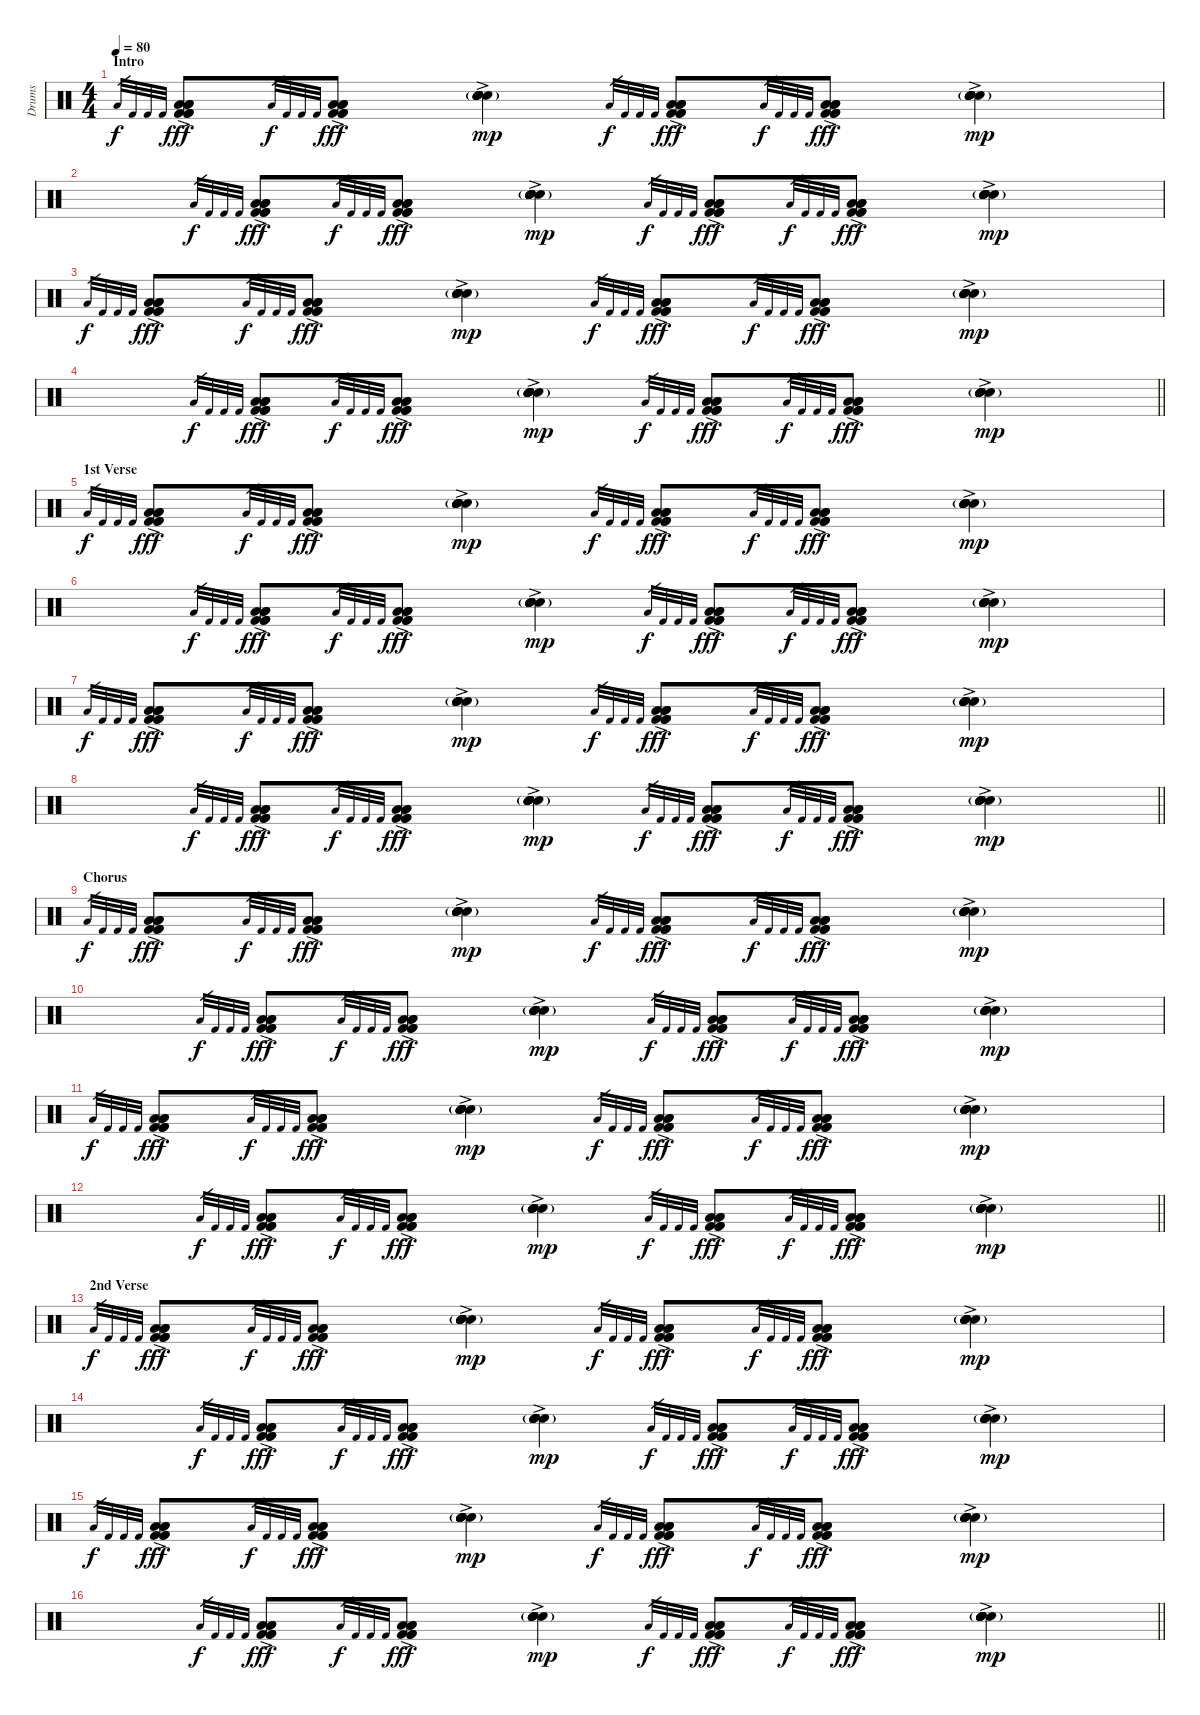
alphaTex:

\track ("Drums" "Drums") {instrument percussion}
\staff {score}
\articulation defaults
\ts (4 4)
\section ("" "Intro")
\tempo 80
\clef neutral
\ks c "Low Tom (hit)".32{gr dy f} "Kick (hit) 2".32{gr} "Kick (hit) 2".32{gr} "Kick (hit) 2".32{gr}
("Low Floor Tom (hit)"{ac} "Low Tom (hit)"{ac} "Low Tom (hit)"{ac} "Kick (hit) 2"{ac} "Kick (hit) 2"{ac} "Kick (hit) 2"{ac}).8{dy fff} "Low Tom (hit)".32{gr dy f} "Kick (hit) 2".32{gr} "Kick (hit) 2".32{gr} "Kick (hit) 2".32{gr} ("Low Floor Tom (hit)"{ac} "Low Tom (hit)"{ac} "Low Tom (hit)"{ac} "Kick (hit) 2"{ac} "Kick (hit) 2"{ac} "Kick (hit) 2"{ac}).8{dy fff} ("Hand Clap (hit)"{ac} "Hand Clap (hit)"{ac} "Hand Clap (hit)"{ac} "Hand Clap (hit)"{ac} "Hand Clap (hit)"{ac} "Electric Snare (hit)"{g ac}).4{dy mp} "Low Tom (hit)".32{gr dy f} "Kick (hit) 2".32{gr} "Kick (hit) 2".32{gr} "Kick (hit) 2".32{gr} ("Low Floor Tom (hit)"{ac} "Low Tom (hit)"{ac} "Low Tom (hit)"{ac} "Kick (hit) 2"{ac} "Kick (hit) 2"{ac} "Kick (hit) 2"{ac}).8{dy fff} "Low Tom (hit)".32{gr dy f} "Kick (hit) 2".32{gr} "Kick (hit) 2".32{gr} "Kick (hit) 2".32{gr} ("Low Floor Tom (hit)"{ac} "Low Tom (hit)"{ac} "Low Tom (hit)"{ac} "Kick (hit) 2"{ac} "Kick (hit) 2"{ac} "Kick (hit) 2"{ac}).8{dy fff} ("Hand Clap (hit)"{ac} "Hand Clap (hit)"{ac} "Hand Clap (hit)"{ac} "Hand Clap (hit)"{ac} "Hand Clap (hit)"{ac} "Electric Snare (hit)"{g ac}).4{dy mp} |
"Low Tom (hit)".32{gr dy f} "Kick (hit) 2".32{gr} "Kick (hit) 2".32{gr} "Kick (hit) 2".32{gr} ("Low Floor Tom (hit)"{ac} "Low Tom (hit)"{ac} "Low Tom (hit)"{ac} "Kick (hit) 2"{ac} "Kick (hit) 2"{ac} "Kick (hit) 2"{ac}).8{dy fff} "Low Tom (hit)".32{gr dy f} "Kick (hit) 2".32{gr} "Kick (hit) 2".32{gr} "Kick (hit) 2".32{gr} ("Low Floor Tom (hit)"{ac} "Low Tom (hit)"{ac} "Low Tom (hit)"{ac} "Kick (hit) 2"{ac} "Kick (hit) 2"{ac} "Kick (hit) 2"{ac}).8{dy fff} ("Hand Clap (hit)"{ac} "Hand Clap (hit)"{ac} "Hand Clap (hit)"{ac} "Hand Clap (hit)"{ac} "Hand Clap (hit)"{ac} "Electric Snare (hit)"{g ac}).4{dy mp} "Low Tom (hit)".32{gr dy f} "Kick (hit) 2".32{gr} "Kick (hit) 2".32{gr} "Kick (hit) 2".32{gr} ("Low Floor Tom (hit)"{ac} "Low Tom (hit)"{ac} "Low Tom (hit)"{ac} "Kick (hit) 2"{ac} "Kick (hit) 2"{ac} "Kick (hit) 2"{ac}).8{dy fff} "Low Tom (hit)".32{gr dy f} "Kick (hit) 2".32{gr} "Kick (hit) 2".32{gr} "Kick (hit) 2".32{gr} ("Low Floor Tom (hit)"{ac} "Low Tom (hit)"{ac} "Low Tom (hit)"{ac} "Kick (hit) 2"{ac} "Kick (hit) 2"{ac} "Kick (hit) 2"{ac}).8{dy fff} ("Hand Clap (hit)"{ac} "Hand Clap (hit)"{ac} "Hand Clap (hit)"{ac} "Hand Clap (hit)"{ac} "Hand Clap (hit)"{ac} "Electric Snare (hit)"{g ac}).4{dy mp} |
"Low Tom (hit)".32{gr dy f} "Kick (hit) 2".32{gr} "Kick (hit) 2".32{gr} "Kick (hit) 2".32{gr} ("Low Floor Tom (hit)"{ac} "Low Tom (hit)"{ac} "Low Tom (hit)"{ac} "Kick (hit) 2"{ac} "Kick (hit) 2"{ac} "Kick (hit) 2"{ac}).8{dy fff} "Low Tom (hit)".32{gr dy f} "Kick (hit) 2".32{gr} "Kick (hit) 2".32{gr} "Kick (hit) 2".32{gr} ("Low Floor Tom (hit)"{ac} "Low Tom (hit)"{ac} "Low Tom (hit)"{ac} "Kick (hit) 2"{ac} "Kick (hit) 2"{ac} "Kick (hit) 2"{ac}).8{dy fff} ("Hand Clap (hit)"{ac} "Hand Clap (hit)"{ac} "Hand Clap (hit)"{ac} "Hand Clap (hit)"{ac} "Hand Clap (hit)"{ac} "Electric Snare (hit)"{g ac}).4{dy mp} "Low Tom (hit)".32{gr dy f} "Kick (hit) 2".32{gr} "Kick (hit) 2".32{gr} "Kick (hit) 2".32{gr} ("Low Floor Tom (hit)"{ac} "Low Tom (hit)"{ac} "Low Tom (hit)"{ac} "Kick (hit) 2"{ac} "Kick (hit) 2"{ac} "Kick (hit) 2"{ac}).8{dy fff} "Low Tom (hit)".32{gr dy f} "Kick (hit) 2".32{gr} "Kick (hit) 2".32{gr} "Kick (hit) 2".32{gr} ("Low Floor Tom (hit)"{ac} "Low Tom (hit)"{ac} "Low Tom (hit)"{ac} "Kick (hit) 2"{ac} "Kick (hit) 2"{ac} "Kick (hit) 2"{ac}).8{dy fff} ("Hand Clap (hit)"{ac} "Hand Clap (hit)"{ac} "Hand Clap (hit)"{ac} "Hand Clap (hit)"{ac} "Hand Clap (hit)"{ac} "Electric Snare (hit)"{g ac}).4{dy mp} |
\barLineRight lightlight "Low Tom (hit)".32{gr dy f} "Kick (hit) 2".32{gr} "Kick (hit) 2".32{gr} "Kick (hit) 2".32{gr}
("Low Floor Tom (hit)"{ac} "Low Tom (hit)"{ac} "Low Tom (hit)"{ac} "Kick (hit) 2"{ac} "Kick (hit) 2"{ac} "Kick (hit) 2"{ac}).8{dy fff} "Low Tom (hit)".32{gr dy f} "Kick (hit) 2".32{gr} "Kick (hit) 2".32{gr} "Kick (hit) 2".32{gr} ("Low Floor Tom (hit)"{ac} "Low Tom (hit)"{ac} "Low Tom (hit)"{ac} "Kick (hit) 2"{ac} "Kick (hit) 2"{ac} "Kick (hit) 2"{ac}).8{dy fff} ("Hand Clap (hit)"{ac} "Hand Clap (hit)"{ac} "Hand Clap (hit)"{ac} "Hand Clap (hit)"{ac} "Hand Clap (hit)"{ac} "Electric Snare (hit)"{g ac}).4{dy mp} "Low Tom (hit)".32{gr dy f} "Kick (hit) 2".32{gr} "Kick (hit) 2".32{gr} "Kick (hit) 2".32{gr} ("Low Floor Tom (hit)"{ac} "Low Tom (hit)"{ac} "Low Tom (hit)"{ac} "Kick (hit) 2"{ac} "Kick (hit) 2"{ac} "Kick (hit) 2"{ac}).8{dy fff} "Low Tom (hit)".32{gr dy f} "Kick (hit) 2".32{gr} "Kick (hit) 2".32{gr} "Kick (hit) 2".32{gr} ("Low Floor Tom (hit)"{ac} "Low Tom (hit)"{ac} "Low Tom (hit)"{ac} "Kick (hit) 2"{ac} "Kick (hit) 2"{ac} "Kick (hit) 2"{ac}).8{dy fff} ("Hand Clap (hit)"{ac} "Hand Clap (hit)"{ac} "Hand Clap (hit)"{ac} "Hand Clap (hit)"{ac} "Hand Clap (hit)"{ac} "Electric Snare (hit)"{g ac}).4{dy mp} |
\section ("" "1st Verse")
"Low Tom (hit)".32{gr dy f} "Kick (hit) 2".32{gr} "Kick (hit) 2".32{gr} "Kick (hit) 2".32{gr} ("Low Floor Tom (hit)"{ac} "Low Tom (hit)"{ac} "Low Tom (hit)"{ac} "Kick (hit) 2"{ac} "Kick (hit) 2"{ac} "Kick (hit) 2"{ac}).8{dy fff} "Low Tom (hit)".32{gr dy f} "Kick (hit) 2".32{gr} "Kick (hit) 2".32{gr} "Kick (hit) 2".32{gr} ("Low Floor Tom (hit)"{ac} "Low Tom (hit)"{ac} "Low Tom (hit)"{ac} "Kick (hit) 2"{ac} "Kick (hit) 2"{ac} "Kick (hit) 2"{ac}).8{dy fff} ("Hand Clap (hit)"{ac} "Hand Clap (hit)"{ac} "Hand Clap (hit)"{ac} "Hand Clap (hit)"{ac} "Hand Clap (hit)"{ac} "Electric Snare (hit)"{g ac}).4{dy mp} "Low Tom (hit)".32{gr dy f} "Kick (hit) 2".32{gr} "Kick (hit) 2".32{gr} "Kick (hit) 2".32{gr} ("Low Floor Tom (hit)"{ac} "Low Tom (hit)"{ac} "Low Tom (hit)"{ac} "Kick (hit) 2"{ac} "Kick (hit) 2"{ac} "Kick (hit) 2"{ac}).8{dy fff} "Low Tom (hit)".32{gr dy f} "Kick (hit) 2".32{gr} "Kick (hit) 2".32{gr} "Kick (hit) 2".32{gr} ("Low Floor Tom (hit)"{ac} "Low Tom (hit)"{ac} "Low Tom (hit)"{ac} "Kick (hit) 2"{ac} "Kick (hit) 2"{ac} "Kick (hit) 2"{ac}).8{dy fff} ("Hand Clap (hit)"{ac} "Hand Clap (hit)"{ac} "Hand Clap (hit)"{ac} "Hand Clap (hit)"{ac} "Hand Clap (hit)"{ac} "Electric Snare (hit)"{g ac}).4{dy mp} |
"Low Tom (hit)".32{gr dy f} "Kick (hit) 2".32{gr} "Kick (hit) 2".32{gr} "Kick (hit) 2".32{gr} ("Low Floor Tom (hit)"{ac} "Low Tom (hit)"{ac} "Low Tom (hit)"{ac} "Kick (hit) 2"{ac} "Kick (hit) 2"{ac} "Kick (hit) 2"{ac}).8{dy fff} "Low Tom (hit)".32{gr dy f} "Kick (hit) 2".32{gr} "Kick (hit) 2".32{gr} "Kick (hit) 2".32{gr} ("Low Floor Tom (hit)"{ac} "Low Tom (hit)"{ac} "Low Tom (hit)"{ac} "Kick (hit) 2"{ac} "Kick (hit) 2"{ac} "Kick (hit) 2"{ac}).8{dy fff} ("Hand Clap (hit)"{ac} "Hand Clap (hit)"{ac} "Hand Clap (hit)"{ac} "Hand Clap (hit)"{ac} "Hand Clap (hit)"{ac} "Electric Snare (hit)"{g ac}).4{dy mp} "Low Tom (hit)".32{gr dy f} "Kick (hit) 2".32{gr} "Kick (hit) 2".32{gr} "Kick (hit) 2".32{gr} ("Low Floor Tom (hit)"{ac} "Low Tom (hit)"{ac} "Low Tom (hit)"{ac} "Kick (hit) 2"{ac} "Kick (hit) 2"{ac} "Kick (hit) 2"{ac}).8{dy fff} "Low Tom (hit)".32{gr dy f} "Kick (hit) 2".32{gr} "Kick (hit) 2".32{gr} "Kick (hit) 2".32{gr} ("Low Floor Tom (hit)"{ac} "Low Tom (hit)"{ac} "Low Tom (hit)"{ac} "Kick (hit) 2"{ac} "Kick (hit) 2"{ac} "Kick (hit) 2"{ac}).8{dy fff} ("Hand Clap (hit)"{ac} "Hand Clap (hit)"{ac} "Hand Clap (hit)"{ac} "Hand Clap (hit)"{ac} "Hand Clap (hit)"{ac} "Electric Snare (hit)"{g ac}).4{dy mp} |
"Low Tom (hit)".32{gr dy f} "Kick (hit) 2".32{gr} "Kick (hit) 2".32{gr} "Kick (hit) 2".32{gr} ("Low Floor Tom (hit)"{ac} "Low Tom (hit)"{ac} "Low Tom (hit)"{ac} "Kick (hit) 2"{ac} "Kick (hit) 2"{ac} "Kick (hit) 2"{ac}).8{dy fff} "Low Tom (hit)".32{gr dy f} "Kick (hit) 2".32{gr} "Kick (hit) 2".32{gr} "Kick (hit) 2".32{gr} ("Low Floor Tom (hit)"{ac} "Low Tom (hit)"{ac} "Low Tom (hit)"{ac} "Kick (hit) 2"{ac} "Kick (hit) 2"{ac} "Kick (hit) 2"{ac}).8{dy fff} ("Hand Clap (hit)"{ac} "Hand Clap (hit)"{ac} "Hand Clap (hit)"{ac} "Hand Clap (hit)"{ac} "Hand Clap (hit)"{ac} "Electric Snare (hit)"{g ac}).4{dy mp} "Low Tom (hit)".32{gr dy f} "Kick (hit) 2".32{gr} "Kick (hit) 2".32{gr} "Kick (hit) 2".32{gr} ("Low Floor Tom (hit)"{ac} "Low Tom (hit)"{ac} "Low Tom (hit)"{ac} "Kick (hit) 2"{ac} "Kick (hit) 2"{ac} "Kick (hit) 2"{ac}).8{dy fff} "Low Tom (hit)".32{gr dy f} "Kick (hit) 2".32{gr} "Kick (hit) 2".32{gr} "Kick (hit) 2".32{gr} ("Low Floor Tom (hit)"{ac} "Low Tom (hit)"{ac} "Low Tom (hit)"{ac} "Kick (hit) 2"{ac} "Kick (hit) 2"{ac} "Kick (hit) 2"{ac}).8{dy fff} ("Hand Clap (hit)"{ac} "Hand Clap (hit)"{ac} "Hand Clap (hit)"{ac} "Hand Clap (hit)"{ac} "Hand Clap (hit)"{ac} "Electric Snare (hit)"{g ac}).4{dy mp} |
\barLineRight lightlight "Low Tom (hit)".32{gr dy f} "Kick (hit) 2".32{gr} "Kick (hit) 2".32{gr} "Kick (hit) 2".32{gr}
("Low Floor Tom (hit)"{ac} "Low Tom (hit)"{ac} "Low Tom (hit)"{ac} "Kick (hit) 2"{ac} "Kick (hit) 2"{ac} "Kick (hit) 2"{ac}).8{dy fff} "Low Tom (hit)".32{gr dy f} "Kick (hit) 2".32{gr} "Kick (hit) 2".32{gr} "Kick (hit) 2".32{gr} ("Low Floor Tom (hit)"{ac} "Low Tom (hit)"{ac} "Low Tom (hit)"{ac} "Kick (hit) 2"{ac} "Kick (hit) 2"{ac} "Kick (hit) 2"{ac}).8{dy fff} ("Hand Clap (hit)"{ac} "Hand Clap (hit)"{ac} "Hand Clap (hit)"{ac} "Hand Clap (hit)"{ac} "Hand Clap (hit)"{ac} "Electric Snare (hit)"{g ac}).4{dy mp} "Low Tom (hit)".32{gr dy f} "Kick (hit) 2".32{gr} "Kick (hit) 2".32{gr} "Kick (hit) 2".32{gr} ("Low Floor Tom (hit)"{ac} "Low Tom (hit)"{ac} "Low Tom (hit)"{ac} "Kick (hit) 2"{ac} "Kick (hit) 2"{ac} "Kick (hit) 2"{ac}).8{dy fff} "Low Tom (hit)".32{gr dy f} "Kick (hit) 2".32{gr} "Kick (hit) 2".32{gr} "Kick (hit) 2".32{gr} ("Low Floor Tom (hit)"{ac} "Low Tom (hit)"{ac} "Low Tom (hit)"{ac} "Kick (hit) 2"{ac} "Kick (hit) 2"{ac} "Kick (hit) 2"{ac}).8{dy fff} ("Hand Clap (hit)"{ac} "Hand Clap (hit)"{ac} "Hand Clap (hit)"{ac} "Hand Clap (hit)"{ac} "Hand Clap (hit)"{ac} "Electric Snare (hit)"{g ac}).4{dy mp} |
\section ("" "Chorus")
"Low Tom (hit)".32{gr dy f} "Kick (hit) 2".32{gr} "Kick (hit) 2".32{gr} "Kick (hit) 2".32{gr} ("Low Floor Tom (hit)"{ac} "Low Tom (hit)"{ac} "Low Tom (hit)"{ac} "Kick (hit) 2"{ac} "Kick (hit) 2"{ac} "Kick (hit) 2"{ac}).8{dy fff} "Low Tom (hit)".32{gr dy f} "Kick (hit) 2".32{gr} "Kick (hit) 2".32{gr} "Kick (hit) 2".32{gr} ("Low Floor Tom (hit)"{ac} "Low Tom (hit)"{ac} "Low Tom (hit)"{ac} "Kick (hit) 2"{ac} "Kick (hit) 2"{ac} "Kick (hit) 2"{ac}).8{dy fff} ("Hand Clap (hit)"{ac} "Hand Clap (hit)"{ac} "Hand Clap (hit)"{ac} "Hand Clap (hit)"{ac} "Hand Clap (hit)"{ac} "Electric Snare (hit)"{g ac}).4{dy mp} "Low Tom (hit)".32{gr dy f} "Kick (hit) 2".32{gr} "Kick (hit) 2".32{gr} "Kick (hit) 2".32{gr} ("Low Floor Tom (hit)"{ac} "Low Tom (hit)"{ac} "Low Tom (hit)"{ac} "Kick (hit) 2"{ac} "Kick (hit) 2"{ac} "Kick (hit) 2"{ac}).8{dy fff} "Low Tom (hit)".32{gr dy f} "Kick (hit) 2".32{gr} "Kick (hit) 2".32{gr} "Kick (hit) 2".32{gr} ("Low Floor Tom (hit)"{ac} "Low Tom (hit)"{ac} "Low Tom (hit)"{ac} "Kick (hit) 2"{ac} "Kick (hit) 2"{ac} "Kick (hit) 2"{ac}).8{dy fff} ("Hand Clap (hit)"{ac} "Hand Clap (hit)"{ac} "Hand Clap (hit)"{ac} "Hand Clap (hit)"{ac} "Hand Clap (hit)"{ac} "Electric Snare (hit)"{g ac}).4{dy mp} |
"Low Tom (hit)".32{gr dy f} "Kick (hit) 2".32{gr} "Kick (hit) 2".32{gr} "Kick (hit) 2".32{gr} ("Low Floor Tom (hit)"{ac} "Low Tom (hit)"{ac} "Low Tom (hit)"{ac} "Kick (hit) 2"{ac} "Kick (hit) 2"{ac} "Kick (hit) 2"{ac}).8{dy fff} "Low Tom (hit)".32{gr dy f} "Kick (hit) 2".32{gr} "Kick (hit) 2".32{gr} "Kick (hit) 2".32{gr} ("Low Floor Tom (hit)"{ac} "Low Tom (hit)"{ac} "Low Tom (hit)"{ac} "Kick (hit) 2"{ac} "Kick (hit) 2"{ac} "Kick (hit) 2"{ac}).8{dy fff} ("Hand Clap (hit)"{ac} "Hand Clap (hit)"{ac} "Hand Clap (hit)"{ac} "Hand Clap (hit)"{ac} "Hand Clap (hit)"{ac} "Electric Snare (hit)"{g ac}).4{dy mp} "Low Tom (hit)".32{gr dy f} "Kick (hit) 2".32{gr} "Kick (hit) 2".32{gr} "Kick (hit) 2".32{gr} ("Low Floor Tom (hit)"{ac} "Low Tom (hit)"{ac} "Low Tom (hit)"{ac} "Kick (hit) 2"{ac} "Kick (hit) 2"{ac} "Kick (hit) 2"{ac}).8{dy fff} "Low Tom (hit)".32{gr dy f} "Kick (hit) 2".32{gr} "Kick (hit) 2".32{gr} "Kick (hit) 2".32{gr} ("Low Floor Tom (hit)"{ac} "Low Tom (hit)"{ac} "Low Tom (hit)"{ac} "Kick (hit) 2"{ac} "Kick (hit) 2"{ac} "Kick (hit) 2"{ac}).8{dy fff} ("Hand Clap (hit)"{ac} "Hand Clap (hit)"{ac} "Hand Clap (hit)"{ac} "Hand Clap (hit)"{ac} "Hand Clap (hit)"{ac} "Electric Snare (hit)"{g ac}).4{dy mp} |
"Low Tom (hit)".32{gr dy f} "Kick (hit) 2".32{gr} "Kick (hit) 2".32{gr} "Kick (hit) 2".32{gr} ("Low Floor Tom (hit)"{ac} "Low Tom (hit)"{ac} "Low Tom (hit)"{ac} "Kick (hit) 2"{ac} "Kick (hit) 2"{ac} "Kick (hit) 2"{ac}).8{dy fff} "Low Tom (hit)".32{gr dy f} "Kick (hit) 2".32{gr} "Kick (hit) 2".32{gr} "Kick (hit) 2".32{gr} ("Low Floor Tom (hit)"{ac} "Low Tom (hit)"{ac} "Low Tom (hit)"{ac} "Kick (hit) 2"{ac} "Kick (hit) 2"{ac} "Kick (hit) 2"{ac}).8{dy fff} ("Hand Clap (hit)"{ac} "Hand Clap (hit)"{ac} "Hand Clap (hit)"{ac} "Hand Clap (hit)"{ac} "Hand Clap (hit)"{ac} "Electric Snare (hit)"{g ac}).4{dy mp} "Low Tom (hit)".32{gr dy f} "Kick (hit) 2".32{gr} "Kick (hit) 2".32{gr} "Kick (hit) 2".32{gr} ("Low Floor Tom (hit)"{ac} "Low Tom (hit)"{ac} "Low Tom (hit)"{ac} "Kick (hit) 2"{ac} "Kick (hit) 2"{ac} "Kick (hit) 2"{ac}).8{dy fff} "Low Tom (hit)".32{gr dy f} "Kick (hit) 2".32{gr} "Kick (hit) 2".32{gr} "Kick (hit) 2".32{gr} ("Low Floor Tom (hit)"{ac} "Low Tom (hit)"{ac} "Low Tom (hit)"{ac} "Kick (hit) 2"{ac} "Kick (hit) 2"{ac} "Kick (hit) 2"{ac}).8{dy fff} ("Hand Clap (hit)"{ac} "Hand Clap (hit)"{ac} "Hand Clap (hit)"{ac} "Hand Clap (hit)"{ac} "Hand Clap (hit)"{ac} "Electric Snare (hit)"{g ac}).4{dy mp} |
\barLineRight lightlight "Low Tom (hit)".32{gr dy f} "Kick (hit) 2".32{gr} "Kick (hit) 2".32{gr} "Kick (hit) 2".32{gr}
("Low Floor Tom (hit)"{ac} "Low Tom (hit)"{ac} "Low Tom (hit)"{ac} "Kick (hit) 2"{ac} "Kick (hit) 2"{ac} "Kick (hit) 2"{ac}).8{dy fff} "Low Tom (hit)".32{gr dy f} "Kick (hit) 2".32{gr} "Kick (hit) 2".32{gr} "Kick (hit) 2".32{gr} ("Low Floor Tom (hit)"{ac} "Low Tom (hit)"{ac} "Low Tom (hit)"{ac} "Kick (hit) 2"{ac} "Kick (hit) 2"{ac} "Kick (hit) 2"{ac}).8{dy fff} ("Hand Clap (hit)"{ac} "Hand Clap (hit)"{ac} "Hand Clap (hit)"{ac} "Hand Clap (hit)"{ac} "Hand Clap (hit)"{ac} "Electric Snare (hit)"{g ac}).4{dy mp} "Low Tom (hit)".32{gr dy f} "Kick (hit) 2".32{gr} "Kick (hit) 2".32{gr} "Kick (hit) 2".32{gr} ("Low Floor Tom (hit)"{ac} "Low Tom (hit)"{ac} "Low Tom (hit)"{ac} "Kick (hit) 2"{ac} "Kick (hit) 2"{ac} "Kick (hit) 2"{ac}).8{dy fff} "Low Tom (hit)".32{gr dy f} "Kick (hit) 2".32{gr} "Kick (hit) 2".32{gr} "Kick (hit) 2".32{gr} ("Low Floor Tom (hit)"{ac} "Low Tom (hit)"{ac} "Low Tom (hit)"{ac} "Kick (hit) 2"{ac} "Kick (hit) 2"{ac} "Kick (hit) 2"{ac}).8{dy fff} ("Hand Clap (hit)"{ac} "Hand Clap (hit)"{ac} "Hand Clap (hit)"{ac} "Hand Clap (hit)"{ac} "Hand Clap (hit)"{ac} "Electric Snare (hit)"{g ac}).4{dy mp} |
\section ("" "2nd Verse")
"Low Tom (hit)".32{gr dy f} "Kick (hit) 2".32{gr} "Kick (hit) 2".32{gr} "Kick (hit) 2".32{gr} ("Low Floor Tom (hit)"{ac} "Low Tom (hit)"{ac} "Low Tom (hit)"{ac} "Kick (hit) 2"{ac} "Kick (hit) 2"{ac} "Kick (hit) 2"{ac}).8{dy fff} "Low Tom (hit)".32{gr dy f} "Kick (hit) 2".32{gr} "Kick (hit) 2".32{gr} "Kick (hit) 2".32{gr} ("Low Floor Tom (hit)"{ac} "Low Tom (hit)"{ac} "Low Tom (hit)"{ac} "Kick (hit) 2"{ac} "Kick (hit) 2"{ac} "Kick (hit) 2"{ac}).8{dy fff} ("Hand Clap (hit)"{ac} "Hand Clap (hit)"{ac} "Hand Clap (hit)"{ac} "Hand Clap (hit)"{ac} "Hand Clap (hit)"{ac} "Electric Snare (hit)"{g ac}).4{dy mp} "Low Tom (hit)".32{gr dy f} "Kick (hit) 2".32{gr} "Kick (hit) 2".32{gr} "Kick (hit) 2".32{gr} ("Low Floor Tom (hit)"{ac} "Low Tom (hit)"{ac} "Low Tom (hit)"{ac} "Kick (hit) 2"{ac} "Kick (hit) 2"{ac} "Kick (hit) 2"{ac}).8{dy fff} "Low Tom (hit)".32{gr dy f} "Kick (hit) 2".32{gr} "Kick (hit) 2".32{gr} "Kick (hit) 2".32{gr} ("Low Floor Tom (hit)"{ac} "Low Tom (hit)"{ac} "Low Tom (hit)"{ac} "Kick (hit) 2"{ac} "Kick (hit) 2"{ac} "Kick (hit) 2"{ac}).8{dy fff} ("Hand Clap (hit)"{ac} "Hand Clap (hit)"{ac} "Hand Clap (hit)"{ac} "Hand Clap (hit)"{ac} "Hand Clap (hit)"{ac} "Electric Snare (hit)"{g ac}).4{dy mp} |
"Low Tom (hit)".32{gr dy f} "Kick (hit) 2".32{gr} "Kick (hit) 2".32{gr} "Kick (hit) 2".32{gr} ("Low Floor Tom (hit)"{ac} "Low Tom (hit)"{ac} "Low Tom (hit)"{ac} "Kick (hit) 2"{ac} "Kick (hit) 2"{ac} "Kick (hit) 2"{ac}).8{dy fff} "Low Tom (hit)".32{gr dy f} "Kick (hit) 2".32{gr} "Kick (hit) 2".32{gr} "Kick (hit) 2".32{gr} ("Low Floor Tom (hit)"{ac} "Low Tom (hit)"{ac} "Low Tom (hit)"{ac} "Kick (hit) 2"{ac} "Kick (hit) 2"{ac} "Kick (hit) 2"{ac}).8{dy fff} ("Hand Clap (hit)"{ac} "Hand Clap (hit)"{ac} "Hand Clap (hit)"{ac} "Hand Clap (hit)"{ac} "Hand Clap (hit)"{ac} "Electric Snare (hit)"{g ac}).4{dy mp} "Low Tom (hit)".32{gr dy f} "Kick (hit) 2".32{gr} "Kick (hit) 2".32{gr} "Kick (hit) 2".32{gr} ("Low Floor Tom (hit)"{ac} "Low Tom (hit)"{ac} "Low Tom (hit)"{ac} "Kick (hit) 2"{ac} "Kick (hit) 2"{ac} "Kick (hit) 2"{ac}).8{dy fff} "Low Tom (hit)".32{gr dy f} "Kick (hit) 2".32{gr} "Kick (hit) 2".32{gr} "Kick (hit) 2".32{gr} ("Low Floor Tom (hit)"{ac} "Low Tom (hit)"{ac} "Low Tom (hit)"{ac} "Kick (hit) 2"{ac} "Kick (hit) 2"{ac} "Kick (hit) 2"{ac}).8{dy fff} ("Hand Clap (hit)"{ac} "Hand Clap (hit)"{ac} "Hand Clap (hit)"{ac} "Hand Clap (hit)"{ac} "Hand Clap (hit)"{ac} "Electric Snare (hit)"{g ac}).4{dy mp} |
"Low Tom (hit)".32{gr dy f} "Kick (hit) 2".32{gr} "Kick (hit) 2".32{gr} "Kick (hit) 2".32{gr} ("Low Floor Tom (hit)"{ac} "Low Tom (hit)"{ac} "Low Tom (hit)"{ac} "Kick (hit) 2"{ac} "Kick (hit) 2"{ac} "Kick (hit) 2"{ac}).8{dy fff} "Low Tom (hit)".32{gr dy f} "Kick (hit) 2".32{gr} "Kick (hit) 2".32{gr} "Kick (hit) 2".32{gr} ("Low Floor Tom (hit)"{ac} "Low Tom (hit)"{ac} "Low Tom (hit)"{ac} "Kick (hit) 2"{ac} "Kick (hit) 2"{ac} "Kick (hit) 2"{ac}).8{dy fff} ("Hand Clap (hit)"{ac} "Hand Clap (hit)"{ac} "Hand Clap (hit)"{ac} "Hand Clap (hit)"{ac} "Hand Clap (hit)"{ac} "Electric Snare (hit)"{g ac}).4{dy mp} "Low Tom (hit)".32{gr dy f} "Kick (hit) 2".32{gr} "Kick (hit) 2".32{gr} "Kick (hit) 2".32{gr} ("Low Floor Tom (hit)"{ac} "Low Tom (hit)"{ac} "Low Tom (hit)"{ac} "Kick (hit) 2"{ac} "Kick (hit) 2"{ac} "Kick (hit) 2"{ac}).8{dy fff} "Low Tom (hit)".32{gr dy f} "Kick (hit) 2".32{gr} "Kick (hit) 2".32{gr} "Kick (hit) 2".32{gr} ("Low Floor Tom (hit)"{ac} "Low Tom (hit)"{ac} "Low Tom (hit)"{ac} "Kick (hit) 2"{ac} "Kick (hit) 2"{ac} "Kick (hit) 2"{ac}).8{dy fff} ("Hand Clap (hit)"{ac} "Hand Clap (hit)"{ac} "Hand Clap (hit)"{ac} "Hand Clap (hit)"{ac} "Hand Clap (hit)"{ac} "Electric Snare (hit)"{g ac}).4{dy mp} |
\barLineRight lightlight "Low Tom (hit)".32{gr dy f} "Kick (hit) 2".32{gr} "Kick (hit) 2".32{gr} "Kick (hit) 2".32{gr}
("Low Floor Tom (hit)"{ac} "Low Tom (hit)"{ac} "Low Tom (hit)"{ac} "Kick (hit) 2"{ac} "Kick (hit) 2"{ac} "Kick (hit) 2"{ac}).8{dy fff} "Low Tom (hit)".32{gr dy f} "Kick (hit) 2".32{gr} "Kick (hit) 2".32{gr} "Kick (hit) 2".32{gr} ("Low Floor Tom (hit)"{ac} "Low Tom (hit)"{ac} "Low Tom (hit)"{ac} "Kick (hit) 2"{ac} "Kick (hit) 2"{ac} "Kick (hit) 2"{ac}).8{dy fff} ("Hand Clap (hit)"{ac} "Hand Clap (hit)"{ac} "Hand Clap (hit)"{ac} "Hand Clap (hit)"{ac} "Hand Clap (hit)"{ac} "Electric Snare (hit)"{g ac}).4{dy mp} "Low Tom (hit)".32{gr dy f} "Kick (hit) 2".32{gr} "Kick (hit) 2".32{gr} "Kick (hit) 2".32{gr} ("Low Floor Tom (hit)"{ac} "Low Tom (hit)"{ac} "Low Tom (hit)"{ac} "Kick (hit) 2"{ac} "Kick (hit) 2"{ac} "Kick (hit) 2"{ac}).8{dy fff} "Low Tom (hit)".32{gr dy f} "Kick (hit) 2".32{gr} "Kick (hit) 2".32{gr} "Kick (hit) 2".32{gr} ("Low Floor Tom (hit)"{ac} "Low Tom (hit)"{ac} "Low Tom (hit)"{ac} "Kick (hit) 2"{ac} "Kick (hit) 2"{ac} "Kick (hit) 2"{ac}).8{dy fff} ("Hand Clap (hit)"{ac} "Hand Clap (hit)"{ac} "Hand Clap (hit)"{ac} "Hand Clap (hit)"{ac} "Hand Clap (hit)"{ac} "Electric Snare (hit)"{g ac}).4{dy mp}
